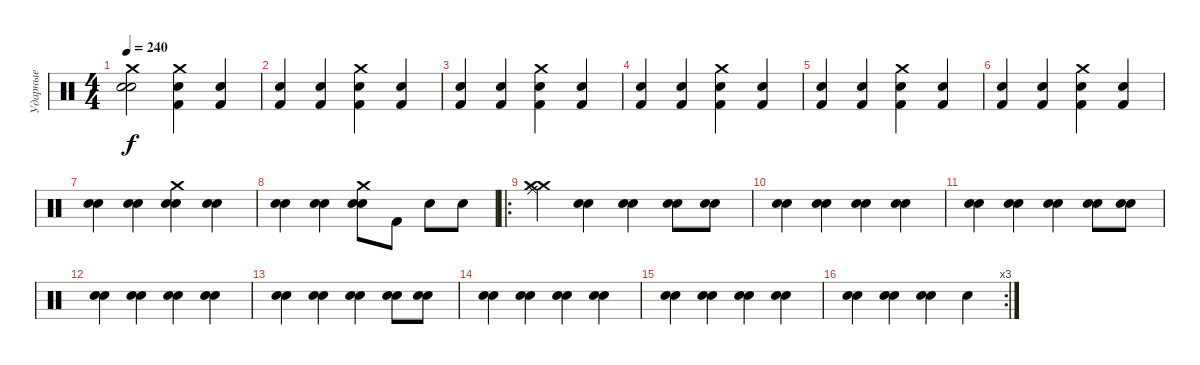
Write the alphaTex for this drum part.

\track ("Ударные" "Ударные") {instrument percussion}
\staff {score}
\articulation defaults
\ts (4 4)
\tempo 240
\clef neutral
\ks c
("Crash medium (hit)" "Snare (hit) 2" "Snare (hit) 2").2{dy f} ("Crash medium (hit)" "Kick (hit) 2" "Snare (hit) 2").4 ("Kick (hit) 2" "Snare (hit) 2").4 |
("Kick (hit) 2" "Snare (hit) 2").4 ("Snare (hit) 2" "Kick (hit) 2").4 ("Crash medium (hit)" "Snare (hit) 2" "Kick (hit) 2").4 ("Snare (hit) 2" "Kick (hit) 2").4 |
("Kick (hit) 2" "Snare (hit) 2").4 ("Kick (hit) 2" "Snare (hit) 2").4 ("Crash medium (hit)" "Kick (hit) 2" "Snare (hit) 2").4 ("Kick (hit) 2" "Snare (hit) 2").4 |
("Kick (hit) 2" "Snare (hit) 2").4 ("Kick (hit) 2" "Snare (hit) 2").4 ("Crash medium (hit)" "Snare (hit) 2" "Kick (hit) 2").4 ("Snare (hit) 2" "Kick (hit) 2").4 |
("Kick (hit) 2" "Snare (hit) 2").4 ("Kick (hit) 2" "Snare (hit) 2").4 ("Crash medium (hit)" "Kick (hit) 2" "Snare (hit) 2").4 ("Kick (hit) 2" "Snare (hit) 2").4 |
("Kick (hit) 2" "Snare (hit) 2").4 ("Kick (hit) 2" "Snare (hit) 2").4 ("Crash medium (hit)" "Snare (hit) 2" "Kick (hit) 2").4 ("Snare (hit) 2" "Kick (hit) 2").4 |
("Snare (hit) 2" "Snare (hit) 2").4 ("Snare (hit) 2" "Snare (hit) 2").4 ("Crash medium (hit)" "Snare (hit) 2" "Snare (hit) 2").4 ("Snare (hit) 2" "Snare (hit) 2").4 |
("Snare (hit) 2" "Snare (hit) 2").4 ("Snare (hit) 2" "Snare (hit) 2").4 ("Crash medium (hit)" "Snare (hit) 2" "Snare (hit) 2").8 "Kick (hit) 2".8 "Snare (hit) 2".8 "Snare (hit) 2".8 |
\ro
("Crash medium (hit)" "Ride (middle)" "Ride (middle)" "Crash medium (hit)").4 ("Snare (hit) 2" "Snare (hit) 2").4 ("Snare (hit) 2" "Snare (hit) 2").4 ("Snare (hit) 2" "Snare (hit) 2").8 ("Snare (hit) 2" "Snare (hit) 2").8 |
("Snare (hit) 2" "Snare (hit) 2").4 ("Snare (hit) 2" "Snare (hit) 2").4 ("Snare (hit) 2" "Snare (hit) 2").4 ("Snare (hit) 2" "Snare (hit) 2").4 |
("Snare (hit) 2" "Snare (hit) 2").4 ("Snare (hit) 2" "Snare (hit) 2").4 ("Snare (hit) 2" "Snare (hit) 2").4 ("Snare (hit) 2" "Snare (hit) 2").8 ("Snare (hit) 2" "Snare (hit) 2").8 |
("Snare (hit) 2" "Snare (hit) 2").4 ("Snare (hit) 2" "Snare (hit) 2").4 ("Snare (hit) 2" "Snare (hit) 2").4 ("Snare (hit) 2" "Snare (hit) 2").4 |
("Snare (hit) 2" "Snare (hit) 2").4 ("Snare (hit) 2" "Snare (hit) 2").4 ("Snare (hit) 2" "Snare (hit) 2").4 ("Snare (hit) 2" "Snare (hit) 2").8 ("Snare (hit) 2" "Snare (hit) 2").8 |
("Snare (hit) 2" "Snare (hit) 2").4 ("Snare (hit) 2" "Snare (hit) 2").4 ("Snare (hit) 2" "Snare (hit) 2").4 ("Snare (hit) 2" "Snare (hit) 2").4 |
("Snare (hit) 2" "Snare (hit) 2").4 ("Snare (hit) 2" "Snare (hit) 2").4 ("Snare (hit) 2" "Snare (hit) 2").4 ("Snare (hit) 2" "Snare (hit) 2").4 |
\rc 3
("Snare (hit) 2" "Snare (hit) 2").4 ("Snare (hit) 2" "Snare (hit) 2").4 ("Snare (hit) 2" "Snare (hit) 2").4 "Snare (hit) 2".4
